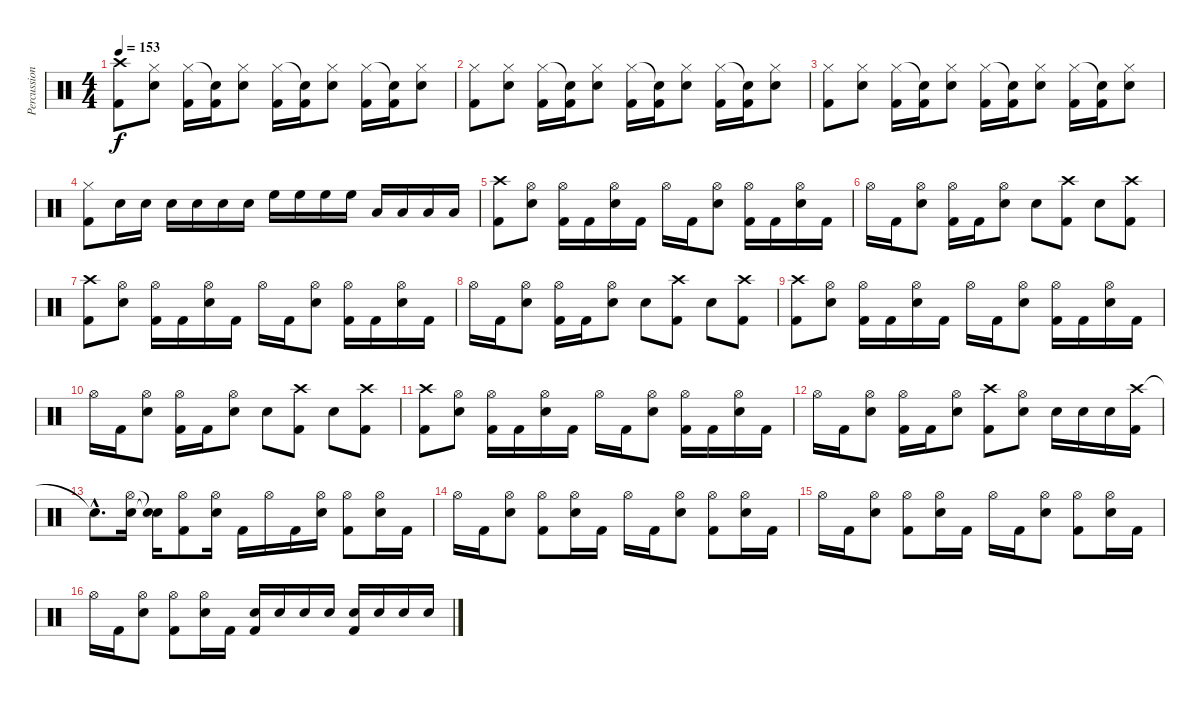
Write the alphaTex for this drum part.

\track ("Percussion" "Percussion") {instrument percussion}
\staff {score}
\articulation defaults
\ts (4 4)
\tempo 153
\clef neutral
\ks c
("Crash high (hit)" "Kick (hit) 2").8{dy f} ("Hi-Hat (closed)" "Snare (hit) 2").8 ("Hi-Hat (closed)" "Kick (hit) 2").16 ("Snare (hit)"{t} "Kick (hit) 2").16 ("Hi-Hat (closed)" "Snare (hit) 2").8 ("Hi-Hat (closed)" "Kick (hit) 2").16 ("Snare (hit)"{t} "Kick (hit) 2").16 ("Hi-Hat (closed)" "Snare (hit) 2").8 ("Hi-Hat (closed)" "Kick (hit) 2").16 ("Snare (hit)"{t} "Kick (hit) 2").16 ("Hi-Hat (closed)" "Snare (hit) 2").8 |
("Hi-Hat (closed)" "Kick (hit) 2").8 ("Hi-Hat (closed)" "Snare (hit) 2").8 ("Hi-Hat (closed)" "Kick (hit) 2").16 ("Snare (hit)"{t} "Kick (hit) 2").16 ("Hi-Hat (closed)" "Snare (hit) 2").8 ("Hi-Hat (closed)" "Kick (hit) 2").16 ("Snare (hit)"{t} "Kick (hit) 2").16 ("Hi-Hat (closed)" "Snare (hit) 2").8 ("Hi-Hat (closed)" "Kick (hit) 2").16 ("Snare (hit)"{t} "Kick (hit) 2").16 ("Hi-Hat (closed)" "Snare (hit) 2").8 |
("Hi-Hat (closed)" "Kick (hit) 2").8 ("Hi-Hat (closed)" "Snare (hit) 2").8 ("Hi-Hat (closed)" "Kick (hit) 2").16 ("Snare (hit)"{t} "Kick (hit) 2").16 ("Hi-Hat (closed)" "Snare (hit) 2").8 ("Hi-Hat (closed)" "Kick (hit) 2").16 ("Snare (hit)"{t} "Kick (hit) 2").16 ("Hi-Hat (closed)" "Snare (hit) 2").8 ("Hi-Hat (closed)" "Kick (hit) 2").16 ("Snare (hit)"{t} "Kick (hit) 2").16 ("Hi-Hat (closed)" "Snare (hit) 2").8 |
("Hi-Hat (closed)" "Kick (hit) 2").8 "Snare (hit) 2".16 "Snare (hit) 2".16 "Snare (hit) 2".16 "Snare (hit) 2".16 "Snare (hit) 2".16 "Snare (hit) 2".16 "High Floor Tom (hit)".16 "High Floor Tom (hit)".16 "High Floor Tom (hit)".16 "High Floor Tom (hit)".16 "Low Floor Tom (hit)".16 "Low Floor Tom (hit)".16 "Low Floor Tom (hit)".16 "Low Floor Tom (hit)".16 |
("Crash high (hit)" "Kick (hit) 2").8 ("Hi-Hat (open)" "Snare (hit) 2").8 ("Hi-Hat (open)" "Kick (hit) 2").16 "Kick (hit) 2".16 ("Hi-Hat (open)" "Snare (hit) 2").16 "Kick (hit) 2".16 "Hi-Hat (open)".16 "Kick (hit) 2".16 ("Hi-Hat (open)" "Snare (hit) 2").8 ("Hi-Hat (open)" "Kick (hit) 2").16 "Kick (hit) 2".16 ("Hi-Hat (open)" "Snare (hit) 2").16 "Kick (hit) 2".16 |
"Hi-Hat (open)".16 "Kick (hit) 2".16 ("Hi-Hat (open)" "Snare (hit) 2").8 ("Hi-Hat (open)" "Kick (hit) 2").16 "Kick (hit) 2".16 ("Hi-Hat (open)" "Snare (hit) 2").8 "Snare (hit) 2".8 ("Crash high (hit)" "Kick (hit) 2").8 "Snare (hit) 2".8 ("Crash high (hit)" "Kick (hit) 2").8 |
("Crash high (hit)" "Kick (hit) 2").8 ("Hi-Hat (open)" "Snare (hit) 2").8 ("Hi-Hat (open)" "Kick (hit) 2").16 "Kick (hit) 2".16 ("Hi-Hat (open)" "Snare (hit) 2").16 "Kick (hit) 2".16 "Hi-Hat (open)".16 "Kick (hit) 2".16 ("Hi-Hat (open)" "Snare (hit) 2").8 ("Hi-Hat (open)" "Kick (hit) 2").16 "Kick (hit) 2".16 ("Hi-Hat (open)" "Snare (hit) 2").16 "Kick (hit) 2".16 |
"Hi-Hat (open)".16 "Kick (hit) 2".16 ("Hi-Hat (open)" "Snare (hit) 2").8 ("Hi-Hat (open)" "Kick (hit) 2").16 "Kick (hit) 2".16 ("Hi-Hat (open)" "Snare (hit) 2").8 "Snare (hit) 2".8 ("Crash high (hit)" "Kick (hit) 2").8 "Snare (hit) 2".8 ("Crash high (hit)" "Kick (hit) 2").8 |
("Crash high (hit)" "Kick (hit) 2").8 ("Hi-Hat (open)" "Snare (hit) 2").8 ("Hi-Hat (open)" "Kick (hit) 2").16 "Kick (hit) 2".16 ("Hi-Hat (open)" "Snare (hit) 2").16 "Kick (hit) 2".16 "Hi-Hat (open)".16 "Kick (hit) 2".16 ("Hi-Hat (open)" "Snare (hit) 2").8 ("Hi-Hat (open)" "Kick (hit) 2").16 "Kick (hit) 2".16 ("Hi-Hat (open)" "Snare (hit) 2").16 "Kick (hit) 2".16 |
"Hi-Hat (open)".16 "Kick (hit) 2".16 ("Hi-Hat (open)" "Snare (hit) 2").8 ("Hi-Hat (open)" "Kick (hit) 2").16 "Kick (hit) 2".16 ("Hi-Hat (open)" "Snare (hit) 2").8 "Snare (hit) 2".8 ("Crash high (hit)" "Kick (hit) 2").8 "Snare (hit) 2".8 ("Crash high (hit)" "Kick (hit) 2").8 |
("Crash high (hit)" "Kick (hit) 2").8 ("Hi-Hat (open)" "Snare (hit) 2").8 ("Hi-Hat (open)" "Kick (hit) 2").16 "Kick (hit) 2".16 ("Hi-Hat (open)" "Snare (hit) 2").16 "Kick (hit) 2".16 "Hi-Hat (open)".16 "Kick (hit) 2".16 ("Hi-Hat (open)" "Snare (hit) 2").8 ("Hi-Hat (open)" "Kick (hit) 2").16 "Kick (hit) 2".16 ("Hi-Hat (open)" "Snare (hit) 2").16 "Kick (hit) 2".16 |
"Hi-Hat (open)".16 "Kick (hit) 2".16 ("Hi-Hat (open)" "Snare (hit) 2").8 ("Hi-Hat (open)" "Kick (hit) 2").16 "Kick (hit) 2".16 ("Hi-Hat (open)" "Snare (hit) 2").8 ("Crash high (hit)" "Kick (hit) 2").8 ("Hi-Hat (open)" "Snare (hit) 2").8 "Snare (hit) 2".16 "Snare (hit) 2".16 "Snare (hit) 2".16 ("Crash high (hit)" "Kick (hit) 2").16 |
"Snare (hit)"{hac t}.8{d} ("Hi-Hat (open)" "Snare (hit) 2").16 ("Snare (hit)"{t} "Snare (hit)"{t}).16 ("Hi-Hat (open)" "Kick (hit) 2").8 ("Hi-Hat (open)" "Snare (hit) 2").16 "Kick (hit) 2".16 "Hi-Hat (open)".16 "Kick (hit) 2".16 ("Hi-Hat (open)" "Snare (hit) 2").16 ("Hi-Hat (open)" "Kick (hit) 2").8 ("Hi-Hat (open)" "Snare (hit) 2").16 "Kick (hit) 2".16 |
"Hi-Hat (open)".16 "Kick (hit) 2".16 ("Hi-Hat (open)" "Snare (hit) 2").8 ("Hi-Hat (open)" "Kick (hit) 2").8 ("Hi-Hat (open)" "Snare (hit) 2").16 "Kick (hit) 2".16 "Hi-Hat (open)".16 "Kick (hit) 2".16 ("Hi-Hat (open)" "Snare (hit) 2").8 ("Hi-Hat (open)" "Kick (hit) 2").8 ("Hi-Hat (open)" "Snare (hit) 2").16 "Kick (hit) 2".16 |
"Hi-Hat (open)".16 "Kick (hit) 2".16 ("Hi-Hat (open)" "Snare (hit) 2").8 ("Hi-Hat (open)" "Kick (hit) 2").8 ("Hi-Hat (open)" "Snare (hit) 2").16 "Kick (hit) 2".16 "Hi-Hat (open)".16 "Kick (hit) 2".16 ("Hi-Hat (open)" "Snare (hit) 2").8 ("Hi-Hat (open)" "Kick (hit) 2").8 ("Hi-Hat (open)" "Snare (hit) 2").16 "Kick (hit) 2".16 |
"Hi-Hat (open)".16 "Kick (hit) 2".16 ("Hi-Hat (open)" "Snare (hit) 2").8 ("Hi-Hat (open)" "Kick (hit) 2").8 ("Hi-Hat (open)" "Snare (hit) 2").16 "Kick (hit) 2".16 ("Snare (hit) 2" "Kick (hit) 2").16 "Snare (hit) 2".16 "Snare (hit) 2".16 "Snare (hit) 2".16 ("Snare (hit) 2" "Kick (hit) 2").16 "Snare (hit) 2".16 "Snare (hit) 2".16 "Snare (hit) 2".16
